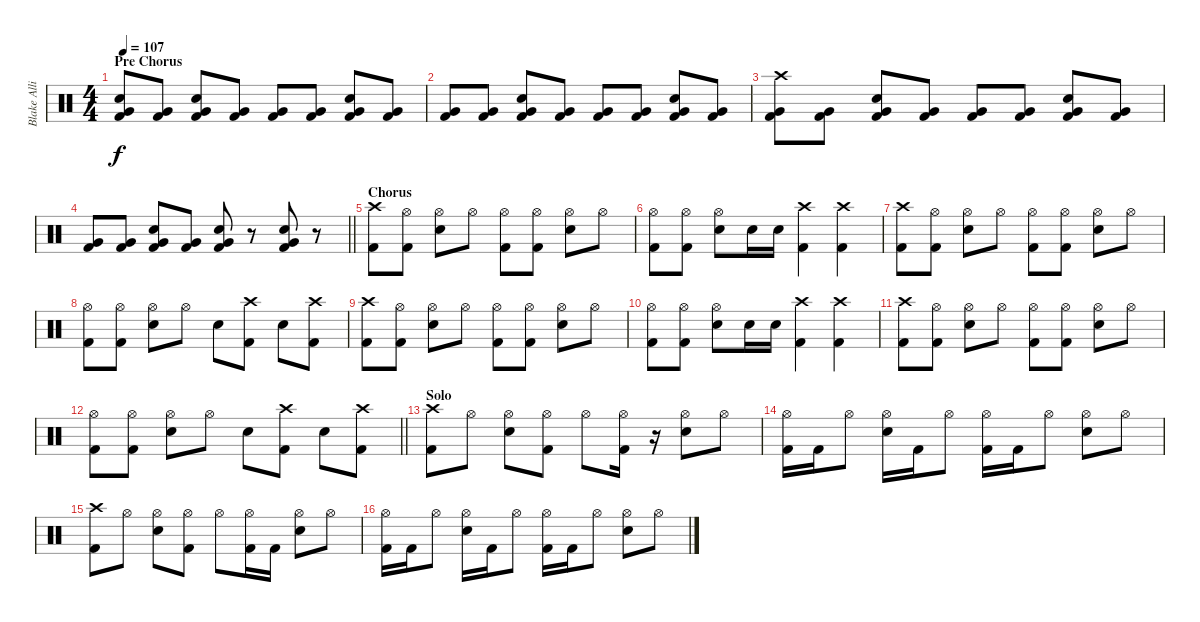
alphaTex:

\track ("Blake Allison (Drums)" "Blake Alli") {instrument percussion}
\staff {score}
\articulation defaults
\ts (4 4)
\section ("" "Pre Chorus")
\tempo 107
\clef neutral
\ks c
("Electric Snare (hit)" "Very Low Tom (hit)" "Kick (hit) 2").8{dy f} ("Very Low Tom (hit)" "Kick (hit) 2").8 ("Electric Snare (hit)" "Very Low Tom (hit)" "Kick (hit) 2").8 ("Very Low Tom (hit)" "Kick (hit) 2").8 ("Very Low Tom (hit)" "Kick (hit) 2").8 ("Very Low Tom (hit)" "Kick (hit) 2").8 ("Electric Snare (hit)" "Very Low Tom (hit)" "Kick (hit) 2").8 ("Very Low Tom (hit)" "Kick (hit) 2").8 |
("Very Low Tom (hit)" "Kick (hit) 2").8 ("Very Low Tom (hit)" "Kick (hit) 2").8 ("Electric Snare (hit)" "Very Low Tom (hit)" "Kick (hit) 2").8 ("Very Low Tom (hit)" "Kick (hit) 2").8 ("Very Low Tom (hit)" "Kick (hit) 2").8 ("Very Low Tom (hit)" "Kick (hit) 2").8 ("Electric Snare (hit)" "Very Low Tom (hit)" "Kick (hit) 2").8 ("Very Low Tom (hit)" "Kick (hit) 2").8 |
("Crash high (hit)" "Very Low Tom (hit)" "Kick (hit) 2").8 ("Very Low Tom (hit)" "Kick (hit) 2").8 ("Electric Snare (hit)" "Very Low Tom (hit)" "Kick (hit) 2").8 ("Very Low Tom (hit)" "Kick (hit) 2").8 ("Very Low Tom (hit)" "Kick (hit) 2").8 ("Very Low Tom (hit)" "Kick (hit) 2").8 ("Electric Snare (hit)" "Very Low Tom (hit)" "Kick (hit) 2").8 ("Very Low Tom (hit)" "Kick (hit) 2").8 |
\barLineRight lightlight
("Very Low Tom (hit)" "Kick (hit) 2").8 ("Very Low Tom (hit)" "Kick (hit) 2").8 ("Electric Snare (hit)" "Very Low Tom (hit)" "Kick (hit) 2").8 ("Very Low Tom (hit)" "Kick (hit) 2").8 ("Electric Snare (hit)" "Very Low Tom (hit)" "Kick (hit) 2").8 r.8 ("Electric Snare (hit)" "Very Low Tom (hit)" "Kick (hit) 2").8 r.8 |
\section ("" "Chorus")
("Crash high (hit)" "Kick (hit) 2").8 ("Hi-Hat (open)" "Kick (hit) 2").8 ("Hi-Hat (open)" "Electric Snare (hit)").8 "Hi-Hat (open)".8 ("Hi-Hat (open)" "Kick (hit) 2").8 ("Hi-Hat (open)" "Kick (hit) 2").8 ("Hi-Hat (open)" "Electric Snare (hit)").8 "Hi-Hat (open)".8 |
("Hi-Hat (open)" "Kick (hit) 2").8 ("Hi-Hat (open)" "Kick (hit) 2").8 ("Hi-Hat (open)" "Electric Snare (hit)").8 "Electric Snare (hit)".16 "Electric Snare (hit)".16 ("Crash high (hit)" "Kick (hit) 2").4 ("Crash high (hit)" "Kick (hit) 2").4 |
("Crash high (hit)" "Kick (hit) 2").8 ("Hi-Hat (open)" "Kick (hit) 2").8 ("Hi-Hat (open)" "Electric Snare (hit)").8 "Hi-Hat (open)".8 ("Hi-Hat (open)" "Kick (hit) 2").8 ("Hi-Hat (open)" "Kick (hit) 2").8 ("Hi-Hat (open)" "Electric Snare (hit)").8 "Hi-Hat (open)".8 |
("Hi-Hat (open)" "Kick (hit) 2").8 ("Hi-Hat (open)" "Kick (hit) 2").8 ("Hi-Hat (open)" "Electric Snare (hit)").8 "Hi-Hat (open)".8 "Electric Snare (hit)".8 ("Crash high (hit)" "Kick (hit) 2").8 "Electric Snare (hit)".8 ("Crash high (hit)" "Kick (hit) 2").8 |
("Crash high (hit)" "Kick (hit) 2").8 ("Hi-Hat (open)" "Kick (hit) 2").8 ("Hi-Hat (open)" "Electric Snare (hit)").8 "Hi-Hat (open)".8 ("Hi-Hat (open)" "Kick (hit) 2").8 ("Hi-Hat (open)" "Kick (hit) 2").8 ("Hi-Hat (open)" "Electric Snare (hit)").8 "Hi-Hat (open)".8 |
("Hi-Hat (open)" "Kick (hit) 2").8 ("Hi-Hat (open)" "Kick (hit) 2").8 ("Hi-Hat (open)" "Electric Snare (hit)").8 "Electric Snare (hit)".16 "Electric Snare (hit)".16 ("Crash high (hit)" "Kick (hit) 2").4 ("Crash high (hit)" "Kick (hit) 2").4 |
("Crash high (hit)" "Kick (hit) 2").8 ("Hi-Hat (open)" "Kick (hit) 2").8 ("Hi-Hat (open)" "Electric Snare (hit)").8 "Hi-Hat (open)".8 ("Hi-Hat (open)" "Kick (hit) 2").8 ("Hi-Hat (open)" "Kick (hit) 2").8 ("Hi-Hat (open)" "Electric Snare (hit)").8 "Hi-Hat (open)".8 |
\barLineRight lightlight
("Hi-Hat (open)" "Kick (hit) 2").8 ("Hi-Hat (open)" "Kick (hit) 2").8 ("Hi-Hat (open)" "Electric Snare (hit)").8 "Hi-Hat (open)".8 "Electric Snare (hit)".8 ("Crash high (hit)" "Kick (hit) 2").8 "Electric Snare (hit)".8 ("Crash high (hit)" "Kick (hit) 2").8 |
\section ("" "Solo")
("Crash high (hit)" "Kick (hit) 2").8 "Hi-Hat (open)".8 ("Hi-Hat (open)" "Electric Snare (hit)").8 ("Hi-Hat (open)" "Kick (hit) 2").8 "Hi-Hat (open)".8 ("Hi-Hat (open)" "Kick (hit) 2").16 r.16 ("Hi-Hat (open)" "Electric Snare (hit)").8 "Hi-Hat (open)".8 |
("Hi-Hat (open)" "Kick (hit) 2").16 "Kick (hit) 2".16 "Hi-Hat (open)".8 ("Hi-Hat (open)" "Electric Snare (hit)").16 "Kick (hit) 2".16 "Hi-Hat (open)".8 ("Hi-Hat (open)" "Kick (hit) 2").16 "Kick (hit) 2".16 "Hi-Hat (open)".8 ("Hi-Hat (open)" "Electric Snare (hit)").8 "Hi-Hat (open)".8 |
("Crash high (hit)" "Kick (hit) 2").8 "Hi-Hat (open)".8 ("Hi-Hat (open)" "Electric Snare (hit)").8 ("Hi-Hat (open)" "Kick (hit) 2").8 "Hi-Hat (open)".8 ("Hi-Hat (open)" "Kick (hit) 2").16 "Kick (hit) 2".16 ("Hi-Hat (open)" "Electric Snare (hit)").8 "Hi-Hat (open)".8 |
("Hi-Hat (open)" "Kick (hit) 2").16 "Kick (hit) 2".16 "Hi-Hat (open)".8 ("Hi-Hat (open)" "Electric Snare (hit)").16 "Kick (hit) 2".16 "Hi-Hat (open)".8 ("Hi-Hat (open)" "Kick (hit) 2").16 "Kick (hit) 2".16 "Hi-Hat (open)".8 ("Hi-Hat (open)" "Electric Snare (hit)").8 "Hi-Hat (open)".8
